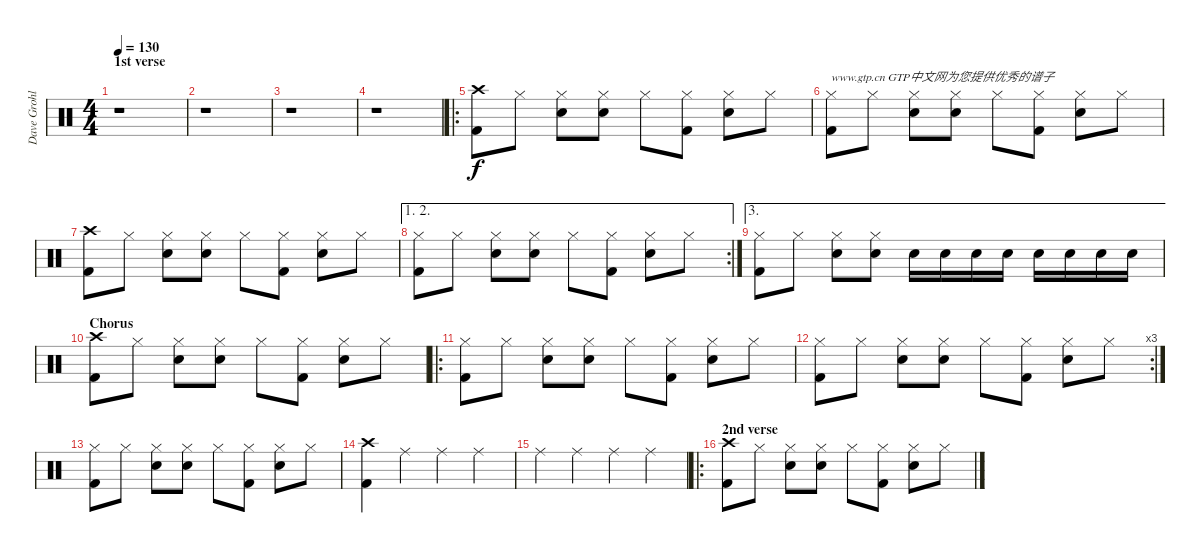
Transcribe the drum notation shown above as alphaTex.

\track ("Dave Grohl" "Dave Grohl") {instrument percussion}
\staff {score}
\articulation defaults
\ts (4 4)
\section ("" "1st verse")
\tempo 130
\clef neutral
\ks c
r.1{dy f} |
r.1 |
r.1 |
r.1 |
\ro
("Crash high (hit)" "Kick (hit) 2").8 "Hi-Hat (closed)".8 ("Hi-Hat (closed)" "Electric Snare (hit)").8 ("Hi-Hat (closed)" "Electric Snare (hit)").8 "Hi-Hat (closed)".8 ("Hi-Hat (closed)" "Kick (hit) 2").8 ("Hi-Hat (closed)" "Electric Snare (hit)").8 "Hi-Hat (closed)".8 |
("Hi-Hat (closed)" "Kick (hit) 2").8{txt "www.gtp.cn GTP中文网为您提供优秀的谱子"} "Hi-Hat (closed)".8 ("Hi-Hat (closed)" "Electric Snare (hit)").8 ("Hi-Hat (closed)" "Electric Snare (hit)").8 "Hi-Hat (closed)".8 ("Hi-Hat (closed)" "Kick (hit) 2").8 ("Hi-Hat (closed)" "Electric Snare (hit)").8 "Hi-Hat (closed)".8 |
("Crash high (hit)" "Kick (hit) 2").8 "Hi-Hat (closed)".8 ("Hi-Hat (closed)" "Electric Snare (hit)").8 ("Hi-Hat (closed)" "Electric Snare (hit)").8 "Hi-Hat (closed)".8 ("Hi-Hat (closed)" "Kick (hit) 2").8 ("Hi-Hat (closed)" "Electric Snare (hit)").8 "Hi-Hat (closed)".8 |
\ae (1 2)
\rc 2
("Hi-Hat (closed)" "Kick (hit) 2").8 "Hi-Hat (closed)".8 ("Hi-Hat (closed)" "Electric Snare (hit)").8 ("Hi-Hat (closed)" "Electric Snare (hit)").8 "Hi-Hat (closed)".8 ("Hi-Hat (closed)" "Kick (hit) 2").8 ("Hi-Hat (closed)" "Electric Snare (hit)").8 "Hi-Hat (closed)".8 |
\ae 3
("Hi-Hat (closed)" "Kick (hit) 2").8 "Hi-Hat (closed)".8 ("Hi-Hat (closed)" "Electric Snare (hit)").8 ("Hi-Hat (closed)" "Electric Snare (hit)").8 "Electric Snare (hit)".16 "Electric Snare (hit)".16 "Electric Snare (hit)".16 "Electric Snare (hit)".16 "Electric Snare (hit)".16 "Electric Snare (hit)".16 "Electric Snare (hit)".16 "Electric Snare (hit)".16 |
\section ("" "Chorus")
("Crash high (hit)" "Kick (hit) 2").8 "Hi-Hat (closed)".8 ("Hi-Hat (closed)" "Electric Snare (hit)").8 ("Hi-Hat (closed)" "Electric Snare (hit)").8 "Hi-Hat (closed)".8 ("Hi-Hat (closed)" "Kick (hit) 2").8 ("Hi-Hat (closed)" "Electric Snare (hit)").8 "Hi-Hat (closed)".8 |
\ro
("Hi-Hat (closed)" "Kick (hit) 2").8 "Hi-Hat (closed)".8 ("Hi-Hat (closed)" "Electric Snare (hit)").8 ("Hi-Hat (closed)" "Electric Snare (hit)").8 "Hi-Hat (closed)".8 ("Hi-Hat (closed)" "Kick (hit) 2").8 ("Hi-Hat (closed)" "Electric Snare (hit)").8 "Hi-Hat (closed)".8 |
\rc 3
("Hi-Hat (closed)" "Kick (hit) 2").8 "Hi-Hat (closed)".8 ("Hi-Hat (closed)" "Electric Snare (hit)").8 ("Hi-Hat (closed)" "Electric Snare (hit)").8 "Hi-Hat (closed)".8 ("Hi-Hat (closed)" "Kick (hit) 2").8 ("Hi-Hat (closed)" "Electric Snare (hit)").8 "Hi-Hat (closed)".8 |
("Hi-Hat (closed)" "Kick (hit) 2").8 "Hi-Hat (closed)".8 ("Hi-Hat (closed)" "Electric Snare (hit)").8 ("Hi-Hat (closed)" "Electric Snare (hit)").8 "Hi-Hat (closed)".8 ("Hi-Hat (closed)" "Kick (hit) 2").8 ("Hi-Hat (closed)" "Electric Snare (hit)").8 "Hi-Hat (closed)".8 |
("Crash high (hit)" "Kick (hit) 2").4 "Ride (middle)".4 "Ride (middle)".4 "Ride (middle)".4 |
"Ride (middle)".4 "Ride (middle)".4 "Ride (middle)".4 "Ride (middle)".4 |
\ro
\section ("" "2nd verse")
("Crash high (hit)" "Kick (hit) 2").8 "Hi-Hat (closed)".8 ("Hi-Hat (closed)" "Electric Snare (hit)").8 ("Hi-Hat (closed)" "Electric Snare (hit)").8 "Hi-Hat (closed)".8 ("Hi-Hat (closed)" "Kick (hit) 2").8 ("Hi-Hat (closed)" "Electric Snare (hit)").8 "Hi-Hat (closed)".8
